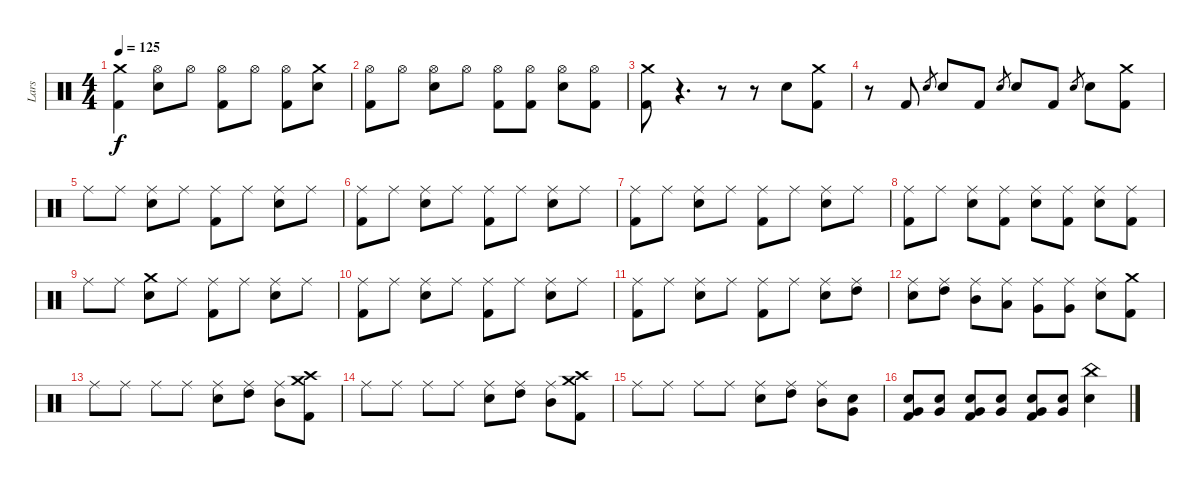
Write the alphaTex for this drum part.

\track ("Lars" "Lars") {instrument percussion}
\staff {score}
\articulation defaults
\ts (4 4)
\tempo 125
\clef neutral
\ks c
("Kick (hit) 2" "Crash medium (hit)").4{dy f} ("Hi-Hat (open)" "Snare (hit) 2").8 "Hi-Hat (open)".8 ("Kick (hit) 2" "Hi-Hat (open)").8 "Hi-Hat (open)".8 ("Kick (hit) 2" "Hi-Hat (open)").8 ("Crash medium (hit)" "Snare (hit) 2").8 |
("Kick (hit) 2" "Hi-Hat (open)").8 "Hi-Hat (open)".8 ("Snare (hit) 2" "Hi-Hat (open)").8 "Hi-Hat (open)".8 ("Kick (hit) 2" "Hi-Hat (open)").8 ("Kick (hit) 2" "Hi-Hat (open)").8 ("Snare (hit) 2" "Hi-Hat (open)").8 ("Kick (hit) 2" "Hi-Hat (open)").8 |
("Kick (hit) 2" "Crash medium (hit)").8 r.4{d volume 0} r.8 r.8{volume 14} "Snare (hit) 2".8 ("Kick (hit) 2" "Crash medium (hit)").8 |
r.8 "Kick (hit) 2".8 "Snare (hit) 2".8{gr} "Snare (hit) 2".8 "Kick (hit) 2".8 "Snare (hit) 2".8{gr} "Snare (hit) 2".8 "Kick (hit) 2".8 "Snare (hit) 2".8{gr} "Snare (hit) 2".8 ("Crash medium (hit)" "Kick (hit) 2").8 |
"Ride (middle)".8 "Ride (middle)".8 ("Snare (hit) 2" "Ride (middle)").8 "Ride (middle)".8 ("Kick (hit) 2" "Ride (middle)").8 "Ride (middle)".8 ("Snare (hit) 2" "Ride (middle)").8 "Ride (middle)".8 |
("Ride (middle)" "Kick (hit) 2").8 "Ride (middle)".8 ("Snare (hit) 2" "Ride (middle)").8 "Ride (middle)".8 ("Kick (hit) 2" "Ride (middle)").8 "Ride (middle)".8 ("Snare (hit) 2" "Ride (middle)").8 "Ride (middle)".8 |
("Ride (middle)" "Kick (hit) 2").8 "Ride (middle)".8 ("Snare (hit) 2" "Ride (middle)").8 "Ride (middle)".8 ("Kick (hit) 2" "Ride (middle)").8 "Ride (middle)".8 ("Snare (hit) 2" "Ride (middle)").8 "Ride (middle)".8 |
("Ride (middle)" "Kick (hit) 2").8 "Ride (middle)".8 ("Snare (hit) 2" "Ride (middle)").8 ("Kick (hit) 2" "Ride (middle)").8 ("Snare (hit) 2" "Ride (middle)").8 ("Ride (middle)" "Kick (hit) 2").8 ("Snare (hit) 2" "Ride (middle)").8 ("Ride (middle)" "Kick (hit) 2").8 |
"Ride (middle)".8 "Ride (middle)".8 ("Snare (hit) 2" "Crash medium (hit)").8 "Ride (middle)".8 ("Kick (hit) 2" "Ride (middle)").8 "Ride (middle)".8 ("Snare (hit) 2" "Ride (middle)").8 "Ride (middle)".8 |
("Ride (middle)" "Kick (hit) 2").8 "Ride (middle)".8 ("Snare (hit) 2" "Ride (middle)").8 "Ride (middle)".8 ("Kick (hit) 2" "Ride (middle)").8 "Ride (middle)".8 ("Snare (hit) 2" "Ride (middle)").8 "Ride (middle)".8 |
("Ride (middle)" "Kick (hit) 2").8 "Ride (middle)".8 ("Snare (hit) 2" "Ride (middle)").8 "Ride (middle)".8 ("Kick (hit) 2" "Ride (middle)").8 "Ride (middle)".8 ("Snare (hit) 2" "Ride (middle)").8 ("Ride (middle)" "High Tom (hit)").8 |
("Ride (middle)" "Snare (hit) 2").8 ("High Tom (hit)" "Ride (middle)").8 ("Mid Tom (hit)" "Ride (middle)").8 ("Low Tom (hit)" "Ride (middle)").8 ("Very Low Tom (hit)" "Ride (middle)").8 ("Very Low Tom (hit)" "Ride (middle)").8 ("Snare (hit) 2" "Ride (middle)").8 ("Crash medium (hit)" "Kick (hit) 2").8 |
"Ride (middle)".8 "Ride (middle)".8 "Ride (middle)".8 "Ride (middle)".8 ("Snare (hit) 2" "Ride (middle)").8 ("Ride (middle)" "High Tom (hit)").8 ("Ride (middle)" "Mid Tom (hit)").8 ("Kick (hit) 2" "Crash medium (hit)" "Crash high (hit)").8 |
"Ride (middle)".8 "Ride (middle)".8 "Ride (middle)".8 "Ride (middle)".8 ("Snare (hit) 2" "Ride (middle)").8 ("Ride (middle)" "High Tom (hit)").8 ("Ride (middle)" "Mid Tom (hit)").8 ("Kick (hit) 2" "Crash medium (hit)" "Crash high (hit)").8 |
"Ride (middle)".8 "Ride (middle)".8 "Ride (middle)".8 "Ride (middle)".8 ("Snare (hit) 2" "Ride (middle)").8 ("Ride (middle)" "High Tom (hit)").8 ("Ride (middle)" "Mid Tom (hit)").8 ("Very Low Tom (hit)" "Snare (hit) 2").8 |
("Kick (hit) 2" "Snare (hit) 2" "Very Low Tom (hit)").8 ("Snare (hit) 2" "Very Low Tom (hit)").8 ("Kick (hit) 2" "Snare (hit) 2" "Very Low Tom (hit)").8 ("Snare (hit) 2" "Very Low Tom (hit)").8 ("Kick (hit) 2" "Snare (hit) 2" "Very Low Tom (hit)").8 ("Snare (hit) 2" "Very Low Tom (hit)").8 ("China (hit)" "Snare (hit) 2").4
